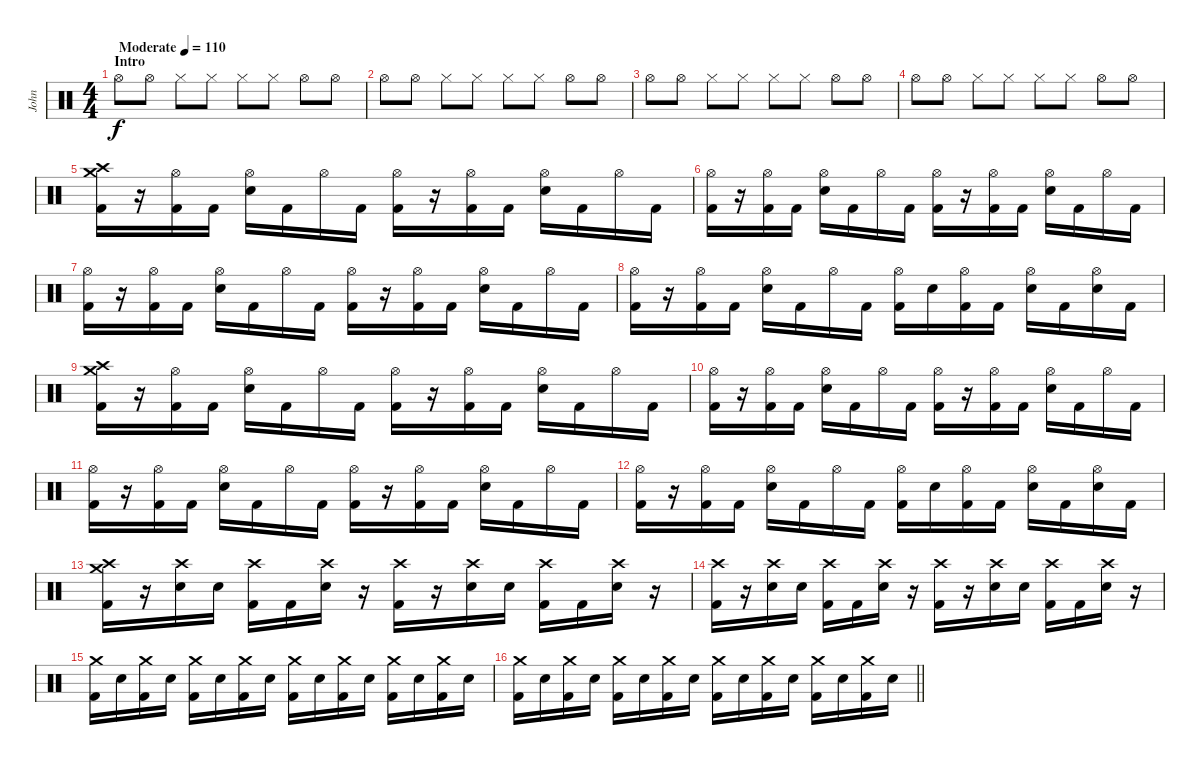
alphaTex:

\track ("John" "John") {instrument percussion}
\staff {score}
\articulation defaults
\ts (4 4)
\section ("" "Intro")
\tempo (110 "Moderate")
\clef neutral
\ks c "Hi-Hat (open)".8{dy f} "Hi-Hat (open)".8 "Hi-Hat (closed)".8 "Hi-Hat (closed)".8 "Hi-Hat (closed)".8 "Hi-Hat (closed)".8 "Hi-Hat (open)".8 "Hi-Hat (open)".8
|
"Hi-Hat (open)".8 "Hi-Hat (open)".8 "Hi-Hat (closed)".8 "Hi-Hat (closed)".8 "Hi-Hat (closed)".8 "Hi-Hat (closed)".8 "Hi-Hat (open)".8 "Hi-Hat (open)".8 |
"Hi-Hat (open)".8 "Hi-Hat (open)".8 "Hi-Hat (closed)".8 "Hi-Hat (closed)".8 "Hi-Hat (closed)".8 "Hi-Hat (closed)".8 "Hi-Hat (open)".8 "Hi-Hat (open)".8 |
"Hi-Hat (open)".8 "Hi-Hat (open)".8 "Hi-Hat (closed)".8 "Hi-Hat (closed)".8 "Hi-Hat (closed)".8 "Hi-Hat (closed)".8 "Hi-Hat (open)".8 "Hi-Hat (open)".8 |
("Crash medium (hit)" "Crash high (hit)" "Kick (hit) 2").16 r.16 ("Hi-Hat (open)" "Kick (hit) 2").16 "Kick (hit) 2".16 ("Hi-Hat (open)" "Electric Snare (hit)").16 "Kick (hit) 2".16 "Hi-Hat (open)".16 "Kick (hit) 2".16 ("Hi-Hat (open)" "Kick (hit) 2").16 r.16 ("Hi-Hat (open)" "Kick (hit) 2").16 "Kick (hit) 2".16 ("Hi-Hat (open)" "Electric Snare (hit)").16 "Kick (hit) 2".16 "Hi-Hat (open)".16 "Kick (hit) 2".16 |
("Hi-Hat (open)" "Kick (hit) 2").16 r.16 ("Hi-Hat (open)" "Kick (hit) 2").16 "Kick (hit) 2".16 ("Hi-Hat (open)" "Electric Snare (hit)").16 "Kick (hit) 2".16 "Hi-Hat (open)".16 "Kick (hit) 2".16 ("Hi-Hat (open)" "Kick (hit) 2").16 r.16 ("Hi-Hat (open)" "Kick (hit) 2").16 "Kick (hit) 2".16 ("Hi-Hat (open)" "Electric Snare (hit)").16 "Kick (hit) 2".16 "Hi-Hat (open)".16 "Kick (hit) 2".16 |
("Hi-Hat (open)" "Kick (hit) 2").16 r.16 ("Hi-Hat (open)" "Kick (hit) 2").16 "Kick (hit) 2".16 ("Hi-Hat (open)" "Electric Snare (hit)").16 "Kick (hit) 2".16 "Hi-Hat (open)".16 "Kick (hit) 2".16 ("Hi-Hat (open)" "Kick (hit) 2").16 r.16 ("Hi-Hat (open)" "Kick (hit) 2").16 "Kick (hit) 2".16 ("Hi-Hat (open)" "Electric Snare (hit)").16 "Kick (hit) 2".16 "Hi-Hat (open)".16 "Kick (hit) 2".16 |
("Hi-Hat (open)" "Kick (hit) 2").16 r.16 ("Hi-Hat (open)" "Kick (hit) 2").16 "Kick (hit) 2".16 ("Hi-Hat (open)" "Electric Snare (hit)").16 "Kick (hit) 2".16 "Hi-Hat (open)".16 "Kick (hit) 2".16 ("Hi-Hat (open)" "Kick (hit) 2").16 "Electric Snare (hit)".16 ("Hi-Hat (open)" "Kick (hit) 2").16 "Kick (hit) 2".16 ("Hi-Hat (open)" "Electric Snare (hit)").16 "Kick (hit) 2".16 ("Hi-Hat (open)" "Electric Snare (hit)").16 "Kick (hit) 2".16 |
("Crash medium (hit)" "Crash high (hit)" "Kick (hit) 2").16 r.16 ("Hi-Hat (open)" "Kick (hit) 2").16 "Kick (hit) 2".16 ("Hi-Hat (open)" "Electric Snare (hit)").16 "Kick (hit) 2".16 "Hi-Hat (open)".16 "Kick (hit) 2".16 ("Hi-Hat (open)" "Kick (hit) 2").16 r.16 ("Hi-Hat (open)" "Kick (hit) 2").16 "Kick (hit) 2".16 ("Hi-Hat (open)" "Electric Snare (hit)").16 "Kick (hit) 2".16 "Hi-Hat (open)".16 "Kick (hit) 2".16 |
("Hi-Hat (open)" "Kick (hit) 2").16 r.16 ("Hi-Hat (open)" "Kick (hit) 2").16 "Kick (hit) 2".16 ("Hi-Hat (open)" "Electric Snare (hit)").16 "Kick (hit) 2".16 "Hi-Hat (open)".16 "Kick (hit) 2".16 ("Hi-Hat (open)" "Kick (hit) 2").16 r.16 ("Hi-Hat (open)" "Kick (hit) 2").16 "Kick (hit) 2".16 ("Hi-Hat (open)" "Electric Snare (hit)").16 "Kick (hit) 2".16 "Hi-Hat (open)".16 "Kick (hit) 2".16 |
("Hi-Hat (open)" "Kick (hit) 2").16 r.16 ("Hi-Hat (open)" "Kick (hit) 2").16 "Kick (hit) 2".16 ("Hi-Hat (open)" "Electric Snare (hit)").16 "Kick (hit) 2".16 "Hi-Hat (open)".16 "Kick (hit) 2".16 ("Hi-Hat (open)" "Kick (hit) 2").16 r.16 ("Hi-Hat (open)" "Kick (hit) 2").16 "Kick (hit) 2".16 ("Hi-Hat (open)" "Electric Snare (hit)").16 "Kick (hit) 2".16 "Hi-Hat (open)".16 "Kick (hit) 2".16 |
("Hi-Hat (open)" "Kick (hit) 2").16 r.16 ("Hi-Hat (open)" "Kick (hit) 2").16 "Kick (hit) 2".16 ("Hi-Hat (open)" "Electric Snare (hit)").16 "Kick (hit) 2".16 "Hi-Hat (open)".16 "Kick (hit) 2".16 ("Hi-Hat (open)" "Kick (hit) 2").16 "Electric Snare (hit)".16 ("Hi-Hat (open)" "Kick (hit) 2").16 "Kick (hit) 2".16 ("Hi-Hat (open)" "Electric Snare (hit)").16 "Kick (hit) 2".16 ("Hi-Hat (open)" "Electric Snare (hit)").16 "Kick (hit) 2".16 |
("Crash medium (hit)" "Crash high (hit)" "Kick (hit) 2").16 r.16 ("Crash high (hit)" "Electric Snare (hit)").16 "Electric Snare (hit)".16 ("Crash high (hit)" "Kick (hit) 2").16 "Kick (hit) 2".16 ("Crash high (hit)" "Electric Snare (hit)").16 r.16 ("Crash high (hit)" "Kick (hit) 2").16 r.16 ("Crash high (hit)" "Electric Snare (hit)").16 "Electric Snare (hit)".16 ("Crash high (hit)" "Kick (hit) 2").16 "Kick (hit) 2".16 ("Crash high (hit)" "Electric Snare (hit)").16 r.16 |
("Crash high (hit)" "Kick (hit) 2").16 r.16 ("Crash high (hit)" "Electric Snare (hit)").16 "Electric Snare (hit)".16 ("Crash high (hit)" "Kick (hit) 2").16 "Kick (hit) 2".16 ("Crash high (hit)" "Electric Snare (hit)").16 r.16 ("Crash high (hit)" "Kick (hit) 2").16 r.16 ("Crash high (hit)" "Electric Snare (hit)").16 "Electric Snare (hit)".16 ("Crash high (hit)" "Kick (hit) 2").16 "Kick (hit) 2".16 ("Crash high (hit)" "Electric Snare (hit)").16 r.16 |
("Crash medium (hit)" "Kick (hit) 2").16 "Electric Snare (hit)".16 ("Crash medium (hit)" "Kick (hit) 2").16 "Electric Snare (hit)".16 ("Crash medium (hit)" "Kick (hit) 2").16 "Electric Snare (hit)".16 ("Crash medium (hit)" "Kick (hit) 2").16 "Electric Snare (hit)".16 ("Crash medium (hit)" "Kick (hit) 2").16 "Electric Snare (hit)".16 ("Crash medium (hit)" "Kick (hit) 2").16 "Electric Snare (hit)".16 ("Crash medium (hit)" "Kick (hit) 2").16 "Electric Snare (hit)".16 ("Crash medium (hit)" "Kick (hit) 2").16 "Electric Snare (hit)".16 |
\barLineRight lightlight
("Crash medium (hit)" "Kick (hit) 2").16 "Electric Snare (hit)".16 ("Crash medium (hit)" "Kick (hit) 2").16 "Electric Snare (hit)".16 ("Crash medium (hit)" "Kick (hit) 2").16 "Electric Snare (hit)".16 ("Crash medium (hit)" "Kick (hit) 2").16 "Electric Snare (hit)".16 ("Crash medium (hit)" "Kick (hit) 2").16 "Electric Snare (hit)".16 ("Crash medium (hit)" "Kick (hit) 2").16 "Electric Snare (hit)".16 ("Crash medium (hit)" "Kick (hit) 2").16 "Electric Snare (hit)".16 ("Crash medium (hit)" "Kick (hit) 2").16 "Electric Snare (hit)".16
